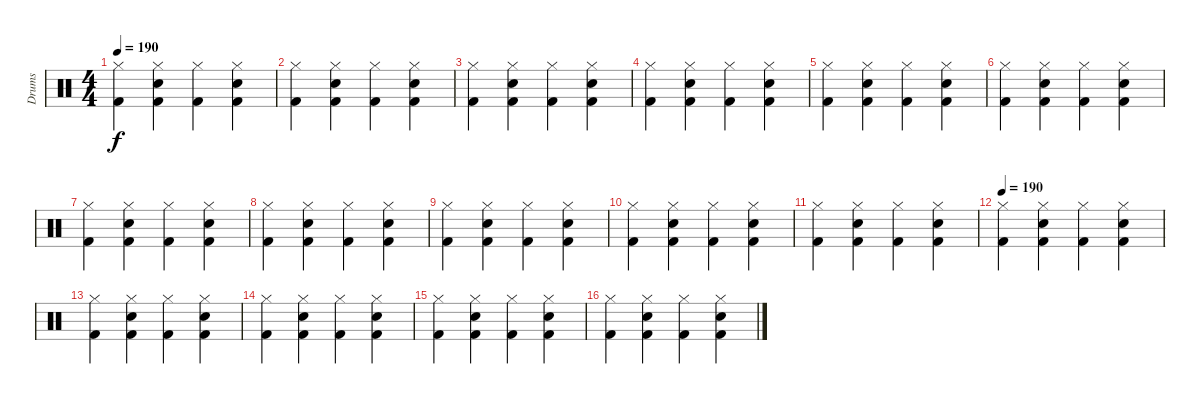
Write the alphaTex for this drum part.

\track ("Drums" "Drums") {instrument percussion}
\staff {score}
\articulation defaults
\ts (4 4)
\tempo 190
\clef neutral
\ks c
("Hi-Hat (closed)" "Kick (hit) 2").4{dy f} ("Hi-Hat (closed)" "Snare (hit) 2" "Kick (hit) 2").4 ("Hi-Hat (closed)" "Kick (hit) 2").4 ("Hi-Hat (closed)" "Snare (hit) 2" "Kick (hit) 2").4 |
("Hi-Hat (closed)" "Kick (hit) 2").4 ("Hi-Hat (closed)" "Snare (hit) 2" "Kick (hit) 2").4 ("Hi-Hat (closed)" "Kick (hit) 2").4 ("Hi-Hat (closed)" "Snare (hit) 2" "Kick (hit) 2").4 |
("Hi-Hat (closed)" "Kick (hit) 2").4 ("Hi-Hat (closed)" "Snare (hit) 2" "Kick (hit) 2").4 ("Hi-Hat (closed)" "Kick (hit) 2").4 ("Hi-Hat (closed)" "Snare (hit) 2" "Kick (hit) 2").4 |
("Hi-Hat (closed)" "Kick (hit) 2").4 ("Hi-Hat (closed)" "Snare (hit) 2" "Kick (hit) 2").4 ("Hi-Hat (closed)" "Kick (hit) 2").4 ("Hi-Hat (closed)" "Snare (hit) 2" "Kick (hit) 2").4 |
("Hi-Hat (closed)" "Kick (hit) 2").4 ("Hi-Hat (closed)" "Snare (hit) 2" "Kick (hit) 2").4 ("Hi-Hat (closed)" "Kick (hit) 2").4 ("Hi-Hat (closed)" "Snare (hit) 2" "Kick (hit) 2").4 |
("Hi-Hat (closed)" "Kick (hit) 2").4 ("Hi-Hat (closed)" "Snare (hit) 2" "Kick (hit) 2").4 ("Hi-Hat (closed)" "Kick (hit) 2").4 ("Hi-Hat (closed)" "Snare (hit) 2" "Kick (hit) 2").4 |
("Hi-Hat (closed)" "Kick (hit) 2").4 ("Hi-Hat (closed)" "Snare (hit) 2" "Kick (hit) 2").4 ("Hi-Hat (closed)" "Kick (hit) 2").4 ("Hi-Hat (closed)" "Snare (hit) 2" "Kick (hit) 2").4 |
("Hi-Hat (closed)" "Kick (hit) 2").4 ("Hi-Hat (closed)" "Snare (hit) 2" "Kick (hit) 2").4 ("Hi-Hat (closed)" "Kick (hit) 2").4 ("Hi-Hat (closed)" "Snare (hit) 2" "Kick (hit) 2").4 |
("Hi-Hat (closed)" "Kick (hit) 2").4 ("Hi-Hat (closed)" "Snare (hit) 2" "Kick (hit) 2").4 ("Hi-Hat (closed)" "Kick (hit) 2").4 ("Hi-Hat (closed)" "Snare (hit) 2" "Kick (hit) 2").4 |
("Hi-Hat (closed)" "Kick (hit) 2").4 ("Hi-Hat (closed)" "Snare (hit) 2" "Kick (hit) 2").4 ("Hi-Hat (closed)" "Kick (hit) 2").4 ("Hi-Hat (closed)" "Snare (hit) 2" "Kick (hit) 2").4 |
("Hi-Hat (closed)" "Kick (hit) 2").4 ("Hi-Hat (closed)" "Snare (hit) 2" "Kick (hit) 2").4 ("Hi-Hat (closed)" "Kick (hit) 2").4 ("Hi-Hat (closed)" "Snare (hit) 2" "Kick (hit) 2").4 |
\tempo 190
("Hi-Hat (closed)" "Kick (hit) 2").4 ("Hi-Hat (closed)" "Snare (hit) 2" "Kick (hit) 2").4 ("Hi-Hat (closed)" "Kick (hit) 2").4 ("Hi-Hat (closed)" "Snare (hit) 2" "Kick (hit) 2").4 |
("Hi-Hat (closed)" "Kick (hit) 2").4 ("Hi-Hat (closed)" "Snare (hit) 2" "Kick (hit) 2").4 ("Hi-Hat (closed)" "Kick (hit) 2").4 ("Hi-Hat (closed)" "Snare (hit) 2" "Kick (hit) 2").4 |
("Hi-Hat (closed)" "Kick (hit) 2").4 ("Hi-Hat (closed)" "Snare (hit) 2" "Kick (hit) 2").4 ("Hi-Hat (closed)" "Kick (hit) 2").4 ("Hi-Hat (closed)" "Snare (hit) 2" "Kick (hit) 2").4 |
("Hi-Hat (closed)" "Kick (hit) 2").4 ("Hi-Hat (closed)" "Snare (hit) 2" "Kick (hit) 2").4 ("Hi-Hat (closed)" "Kick (hit) 2").4 ("Hi-Hat (closed)" "Snare (hit) 2" "Kick (hit) 2").4 |
("Hi-Hat (closed)" "Kick (hit) 2").4 ("Hi-Hat (closed)" "Snare (hit) 2" "Kick (hit) 2").4 ("Hi-Hat (closed)" "Kick (hit) 2").4 ("Hi-Hat (closed)" "Snare (hit) 2" "Kick (hit) 2").4
